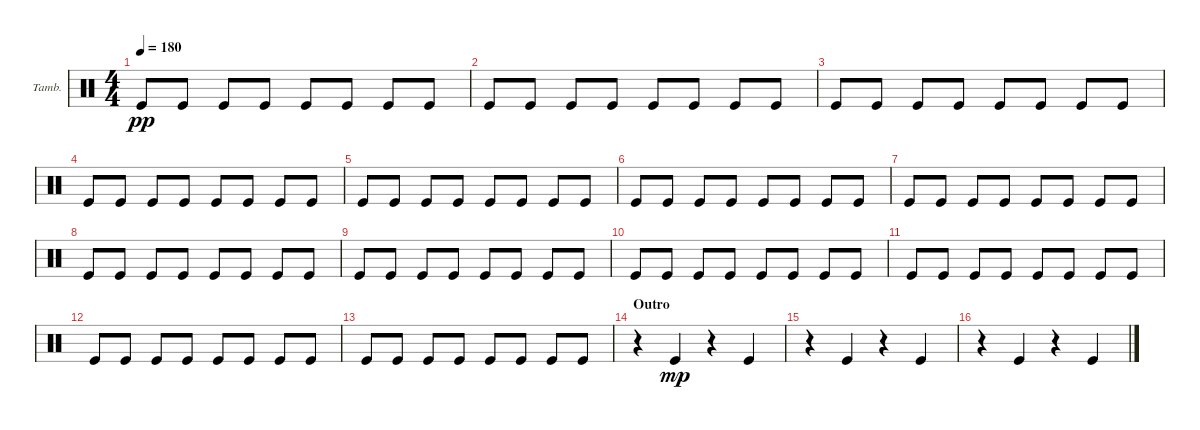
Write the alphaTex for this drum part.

\defaultSystemsLayout 4
\bracketExtendMode groupsimilarinstruments
\firstSystemTrackNameOrientation horizontal
\otherSystemsTrackNameOrientation horizontal
\track ("Tambourine" "Tamb.") {instrument percussion}
\staff {score}
\articulation defaults
\ts (4 4)
\tempo 180
\clef neutral
\ks c "Kick (hit)".8{dy pp} "Kick (hit)".8 "Kick (hit)".8 "Kick (hit)".8 "Kick (hit)".8 "Kick (hit)".8 "Kick (hit)".8 "Kick (hit)".8
|
"Kick (hit)".8 "Kick (hit)".8 "Kick (hit)".8 "Kick (hit)".8 "Kick (hit)".8 "Kick (hit)".8 "Kick (hit)".8 "Kick (hit)".8 |
"Kick (hit)".8 "Kick (hit)".8 "Kick (hit)".8 "Kick (hit)".8 "Kick (hit)".8 "Kick (hit)".8 "Kick (hit)".8 "Kick (hit)".8 |
"Kick (hit)".8 "Kick (hit)".8 "Kick (hit)".8 "Kick (hit)".8 "Kick (hit)".8 "Kick (hit)".8 "Kick (hit)".8 "Kick (hit)".8 |
"Kick (hit)".8 "Kick (hit)".8 "Kick (hit)".8 "Kick (hit)".8 "Kick (hit)".8 "Kick (hit)".8 "Kick (hit)".8 "Kick (hit)".8 |
"Kick (hit)".8 "Kick (hit)".8 "Kick (hit)".8 "Kick (hit)".8 "Kick (hit)".8 "Kick (hit)".8 "Kick (hit)".8 "Kick (hit)".8 |
"Kick (hit)".8 "Kick (hit)".8 "Kick (hit)".8 "Kick (hit)".8 "Kick (hit)".8 "Kick (hit)".8 "Kick (hit)".8 "Kick (hit)".8 |
"Kick (hit)".8 "Kick (hit)".8 "Kick (hit)".8 "Kick (hit)".8 "Kick (hit)".8 "Kick (hit)".8 "Kick (hit)".8 "Kick (hit)".8 |
"Kick (hit)".8 "Kick (hit)".8 "Kick (hit)".8 "Kick (hit)".8 "Kick (hit)".8 "Kick (hit)".8 "Kick (hit)".8 "Kick (hit)".8 |
"Kick (hit)".8 "Kick (hit)".8 "Kick (hit)".8 "Kick (hit)".8 "Kick (hit)".8 "Kick (hit)".8 "Kick (hit)".8 "Kick (hit)".8 |
"Kick (hit)".8 "Kick (hit)".8 "Kick (hit)".8 "Kick (hit)".8 "Kick (hit)".8 "Kick (hit)".8 "Kick (hit)".8 "Kick (hit)".8 |
"Kick (hit)".8 "Kick (hit)".8 "Kick (hit)".8 "Kick (hit)".8 "Kick (hit)".8 "Kick (hit)".8 "Kick (hit)".8 "Kick (hit)".8 |
"Kick (hit)".8 "Kick (hit)".8 "Kick (hit)".8 "Kick (hit)".8 "Kick (hit)".8 "Kick (hit)".8 "Kick (hit)".8 "Kick (hit)".8 |
\section ("" "Outro")
r.4 "Kick (hit)".4{dy mp} r.4 "Kick (hit)".4 |
r.4 "Kick (hit)".4 r.4 "Kick (hit)".4 |
r.4 "Kick (hit)".4 r.4 "Kick (hit)".4
